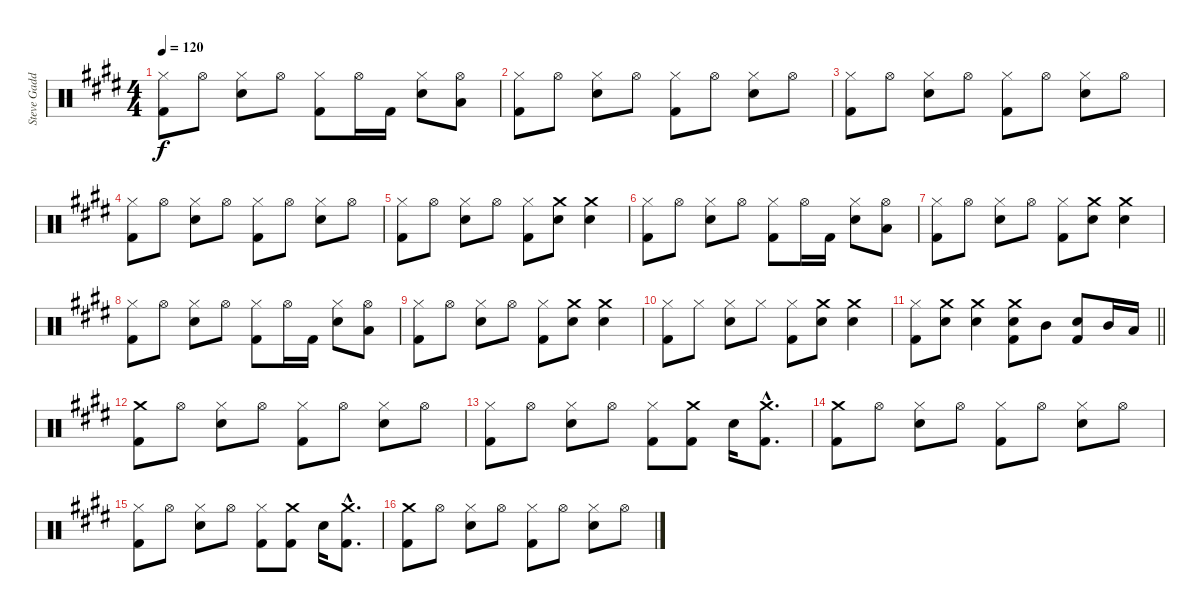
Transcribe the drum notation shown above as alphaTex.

\track ("Steve Gadd Drums" "Steve Gadd") {instrument percussion}
\staff {score}
\articulation defaults
\ts (4 4)
\tempo 120
\clef neutral
\ks e
("Hi-Hat (closed)" "Kick (hit) 2").8{dy f} "Hi-Hat (open)".8 ("Hi-Hat (closed)" "Snare (hit) 2").8 "Hi-Hat (open)".8 ("Hi-Hat (closed)" "Kick (hit) 2").8 "Hi-Hat (open)".16 "Kick (hit) 2".16 ("Hi-Hat (closed)" "Snare (hit) 2").8 ("Hi-Hat (open)" "Low Tom (hit)").8 |
("Hi-Hat (closed)" "Kick (hit) 2").8 "Hi-Hat (open)".8 ("Hi-Hat (closed)" "Snare (hit) 2").8 "Hi-Hat (open)".8 ("Hi-Hat (closed)" "Kick (hit) 2").8 "Hi-Hat (open)".8 ("Hi-Hat (closed)" "Snare (hit) 2").8 "Hi-Hat (open)".8 |
("Hi-Hat (closed)" "Kick (hit) 2").8 "Hi-Hat (open)".8 ("Hi-Hat (closed)" "Snare (hit) 2").8 "Hi-Hat (open)".8 ("Hi-Hat (closed)" "Kick (hit) 2").8 "Hi-Hat (open)".8 ("Hi-Hat (closed)" "Snare (hit) 2").8 "Hi-Hat (open)".8 |
("Hi-Hat (closed)" "Kick (hit) 2").8 "Hi-Hat (open)".8 ("Hi-Hat (closed)" "Snare (hit) 2").8 "Hi-Hat (open)".8 ("Hi-Hat (closed)" "Kick (hit) 2").8 "Hi-Hat (open)".8 ("Hi-Hat (closed)" "Snare (hit) 2").8 "Hi-Hat (open)".8 |
("Hi-Hat (closed)" "Kick (hit) 2").8 "Hi-Hat (open)".8 ("Hi-Hat (closed)" "Snare (hit) 2").8 "Hi-Hat (open)".8 ("Hi-Hat (closed)" "Kick (hit) 2").8 ("Crash medium (hit)" "Snare (hit) 2").8 ("Crash medium (hit)" "Snare (hit) 2").4 |
("Hi-Hat (closed)" "Kick (hit) 2").8 "Hi-Hat (open)".8 ("Hi-Hat (closed)" "Snare (hit) 2").8 "Hi-Hat (open)".8 ("Hi-Hat (closed)" "Kick (hit) 2").8 "Hi-Hat (open)".16 "Kick (hit) 2".16 ("Hi-Hat (closed)" "Snare (hit) 2").8 ("Hi-Hat (open)" "Low Tom (hit)").8 |
("Hi-Hat (closed)" "Kick (hit) 2").8 "Hi-Hat (open)".8 ("Hi-Hat (closed)" "Snare (hit) 2").8 "Hi-Hat (open)".8 ("Hi-Hat (closed)" "Kick (hit) 2").8 ("Crash medium (hit)" "Snare (hit) 2").8 ("Crash medium (hit)" "Snare (hit) 2").4 |
("Hi-Hat (closed)" "Kick (hit) 2").8 "Hi-Hat (open)".8 ("Hi-Hat (closed)" "Snare (hit) 2").8 "Hi-Hat (open)".8 ("Hi-Hat (closed)" "Kick (hit) 2").8 "Hi-Hat (open)".16 "Kick (hit) 2".16 ("Hi-Hat (closed)" "Snare (hit) 2").8 ("Hi-Hat (open)" "Low Tom (hit)").8 |
("Hi-Hat (closed)" "Kick (hit) 2").8 "Hi-Hat (open)".8 ("Hi-Hat (closed)" "Snare (hit) 2").8 "Hi-Hat (open)".8 ("Hi-Hat (closed)" "Kick (hit) 2").8 ("Crash medium (hit)" "Snare (hit) 2").8 ("Crash medium (hit)" "Snare (hit) 2").4 |
("Hi-Hat (closed)" "Kick (hit) 2").8 "Hi-Hat (closed)".8 ("Hi-Hat (closed)" "Snare (hit) 2").8 "Hi-Hat (closed)".8 ("Hi-Hat (closed)" "Kick (hit) 2").8 ("Crash medium (hit)" "Snare (hit) 2").8 ("Crash medium (hit)" "Snare (hit) 2").4 |
\barLineRight lightlight
("Hi-Hat (closed)" "Kick (hit) 2").8 ("Crash medium (hit)" "Snare (hit) 2").8 ("Crash medium (hit)" "Snare (hit) 2").4 ("Crash medium (hit)" "Snare (hit) 2" "Kick (hit) 2").8 "Mid Tom (hit)".8 ("Snare (hit) 2" "Kick (hit) 2").8 "Mid Tom (hit)".16 "Low Tom (hit)".16 |
("Crash medium (hit)" "Kick (hit) 2").8 "Hi-Hat (open)".8 ("Hi-Hat (closed)" "Snare (hit) 2").8 "Hi-Hat (open)".8 ("Hi-Hat (closed)" "Kick (hit) 2").8 "Hi-Hat (open)".8 ("Hi-Hat (closed)" "Snare (hit) 2").8 "Hi-Hat (open)".8 |
("Hi-Hat (closed)" "Kick (hit) 2").8 "Hi-Hat (open)".8 ("Hi-Hat (closed)" "Snare (hit) 2").8 "Hi-Hat (open)".8 ("Hi-Hat (closed)" "Kick (hit) 2").8 ("Crash medium (hit)" "Kick (hit) 2").8 "Snare (hit) 2".16 ("Crash medium (hit)"{hac} "Kick (hit) 2"{hac}).8{d} |
("Crash medium (hit)" "Kick (hit) 2").8 "Hi-Hat (open)".8 ("Hi-Hat (closed)" "Snare (hit) 2").8 "Hi-Hat (open)".8 ("Hi-Hat (closed)" "Kick (hit) 2").8 "Hi-Hat (open)".8 ("Hi-Hat (closed)" "Snare (hit) 2").8 "Hi-Hat (open)".8 |
("Hi-Hat (closed)" "Kick (hit) 2").8 "Hi-Hat (open)".8 ("Hi-Hat (closed)" "Snare (hit) 2").8 "Hi-Hat (open)".8 ("Hi-Hat (closed)" "Kick (hit) 2").8 ("Crash medium (hit)" "Kick (hit) 2").8 "Snare (hit) 2".16 ("Crash medium (hit)"{hac} "Kick (hit) 2"{hac}).8{d} |
("Crash medium (hit)" "Kick (hit) 2").8 "Hi-Hat (open)".8 ("Hi-Hat (closed)" "Snare (hit) 2").8 "Hi-Hat (open)".8 ("Hi-Hat (closed)" "Kick (hit) 2").8 "Hi-Hat (open)".8 ("Hi-Hat (closed)" "Snare (hit) 2").8 "Hi-Hat (open)".8
